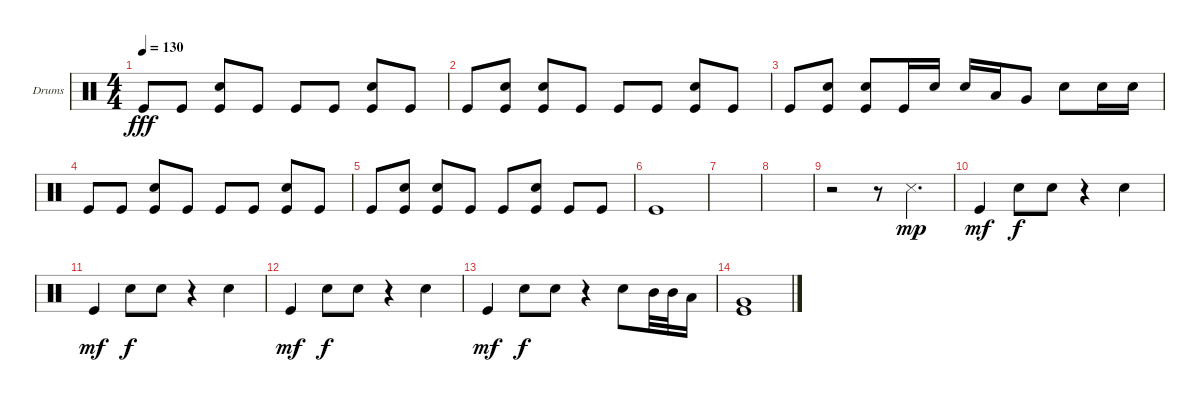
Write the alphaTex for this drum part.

\defaultSystemsLayout 4
\bracketExtendMode groupsimilarinstruments
\firstSystemTrackNameOrientation horizontal
\otherSystemsTrackNameOrientation horizontal
\track ("Helders" "Drums") {instrument percussion}
\staff {score}
\articulation defaults
\ts (4 4)
\tempo 130
\clef neutral
\ks c "Kick (hit)".8{dy fff} "Kick (hit)".8
("Kick (hit)" "Snare (hit) 2").8 "Kick (hit)".8 "Kick (hit)".8 "Kick (hit)".8 ("Kick (hit)" "Snare (hit) 2").8 "Kick (hit)".8 |
"Kick (hit)".8 ("Kick (hit)" "Snare (hit) 2").8 ("Kick (hit)" "Snare (hit) 2").8 "Kick (hit)".8 "Kick (hit)".8 "Kick (hit)".8 ("Kick (hit)" "Snare (hit) 2").8 "Kick (hit)".8 |
"Kick (hit)".8 ("Kick (hit)" "Snare (hit) 2").8 ("Kick (hit)" "Snare (hit) 2").8 "Kick (hit)".16 "Snare (hit) 2".16 "Snare (hit) 2".16 "Low Tom (hit)".16 "Very Low Tom (hit)".8 "Snare (hit) 2".8 "Snare (hit) 2".16 "Snare (hit) 2".16 |
"Kick (hit)".8 "Kick (hit)".8 ("Kick (hit)" "Snare (hit) 2").8 "Kick (hit)".8 "Kick (hit)".8 "Kick (hit)".8 ("Kick (hit)" "Snare (hit) 2").8 "Kick (hit)".8 |
"Kick (hit)".8 ("Kick (hit)" "Snare (hit) 2").8 ("Kick (hit)" "Snare (hit) 2").8 "Kick (hit)".8 "Kick (hit)".8 ("Kick (hit)" "Snare (hit) 2").8 "Kick (hit)".8 "Kick (hit)".8 |
"Kick (hit)".1 |
|
|
r.2 r.8 "Snare (side stick) 3".4{d dy mp} |
"Kick (hit)".4{dy mf} "Snare (hit) 2".8{dy f} "Snare (hit) 2".8 r.4 "Snare (hit) 2".4 |
"Kick (hit)".4{dy mf} "Snare (hit) 2".8{dy f} "Snare (hit) 2".8 r.4 "Snare (hit) 2".4 |
"Kick (hit)".4{dy mf} "Snare (hit) 2".8{dy f} "Snare (hit) 2".8 r.4 "Snare (hit) 2".4 |
"Kick (hit)".4{dy mf} "Snare (hit) 2".8{dy f} "Snare (hit) 2".8 r.4 "Snare (hit) 2".8 "Mid Tom (hit)".32 "Mid Tom (hit)".32 "Low Tom (hit)".16 |
("Very Low Tom (hit)" "Kick (hit)").1
